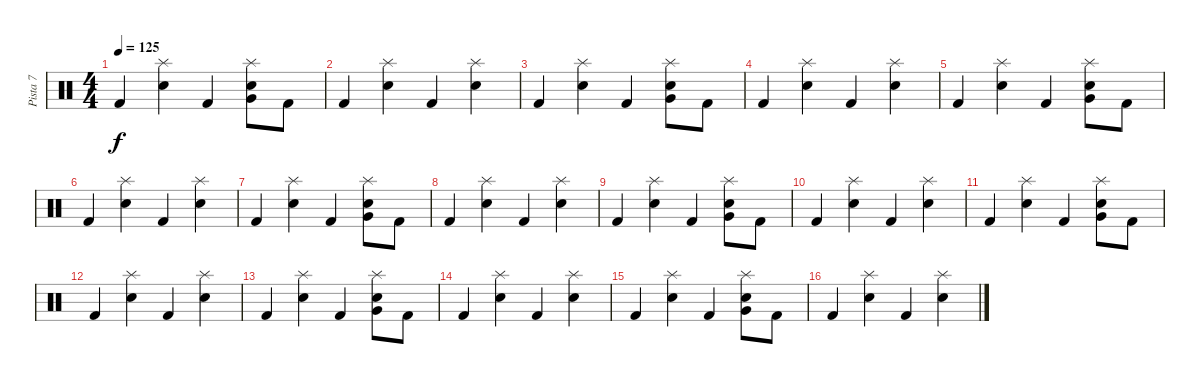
\track ("Pista 7" "Pista 7") {instrument percussion}
\staff {score}
\articulation defaults
\ts (4 4)
\tempo 125
\clef neutral
\ks c "Kick (hit) 2".4{dy f}
("Splash (hit)" "Electric Snare (hit)").4 "Kick (hit) 2".4 ("Splash (hit)" "Very Low Tom (hit)" "Electric Snare (hit)").8 "Kick (hit) 2".8 |
"Kick (hit) 2".4 ("Splash (hit)" "Electric Snare (hit)").4 "Kick (hit) 2".4 ("Splash (hit)" "Electric Snare (hit)").4 |
"Kick (hit) 2".4 ("Splash (hit)" "Electric Snare (hit)").4 "Kick (hit) 2".4 ("Splash (hit)" "Very Low Tom (hit)" "Electric Snare (hit)").8 "Kick (hit) 2".8 |
"Kick (hit) 2".4 ("Splash (hit)" "Electric Snare (hit)").4 "Kick (hit) 2".4 ("Splash (hit)" "Electric Snare (hit)").4 |
"Kick (hit) 2".4 ("Splash (hit)" "Electric Snare (hit)").4 "Kick (hit) 2".4 ("Splash (hit)" "Very Low Tom (hit)" "Electric Snare (hit)").8 "Kick (hit) 2".8 |
"Kick (hit) 2".4 ("Splash (hit)" "Electric Snare (hit)").4 "Kick (hit) 2".4 ("Splash (hit)" "Electric Snare (hit)").4 |
"Kick (hit) 2".4 ("Splash (hit)" "Electric Snare (hit)").4 "Kick (hit) 2".4 ("Splash (hit)" "Very Low Tom (hit)" "Electric Snare (hit)").8 "Kick (hit) 2".8 |
"Kick (hit) 2".4 ("Splash (hit)" "Electric Snare (hit)").4 "Kick (hit) 2".4 ("Splash (hit)" "Electric Snare (hit)").4 |
"Kick (hit) 2".4 ("Splash (hit)" "Electric Snare (hit)").4 "Kick (hit) 2".4 ("Splash (hit)" "Very Low Tom (hit)" "Electric Snare (hit)").8 "Kick (hit) 2".8 |
"Kick (hit) 2".4 ("Splash (hit)" "Electric Snare (hit)").4 "Kick (hit) 2".4 ("Splash (hit)" "Electric Snare (hit)").4 |
"Kick (hit) 2".4 ("Splash (hit)" "Electric Snare (hit)").4 "Kick (hit) 2".4 ("Splash (hit)" "Very Low Tom (hit)" "Electric Snare (hit)").8 "Kick (hit) 2".8 |
"Kick (hit) 2".4 ("Splash (hit)" "Electric Snare (hit)").4 "Kick (hit) 2".4 ("Splash (hit)" "Electric Snare (hit)").4 |
"Kick (hit) 2".4 ("Splash (hit)" "Electric Snare (hit)").4 "Kick (hit) 2".4 ("Splash (hit)" "Very Low Tom (hit)" "Electric Snare (hit)").8 "Kick (hit) 2".8 |
"Kick (hit) 2".4 ("Splash (hit)" "Electric Snare (hit)").4 "Kick (hit) 2".4 ("Splash (hit)" "Electric Snare (hit)").4 |
"Kick (hit) 2".4 ("Splash (hit)" "Electric Snare (hit)").4 "Kick (hit) 2".4 ("Splash (hit)" "Very Low Tom (hit)" "Electric Snare (hit)").8 "Kick (hit) 2".8 |
"Kick (hit) 2".4 ("Splash (hit)" "Electric Snare (hit)").4 "Kick (hit) 2".4 ("Splash (hit)" "Electric Snare (hit)").4
